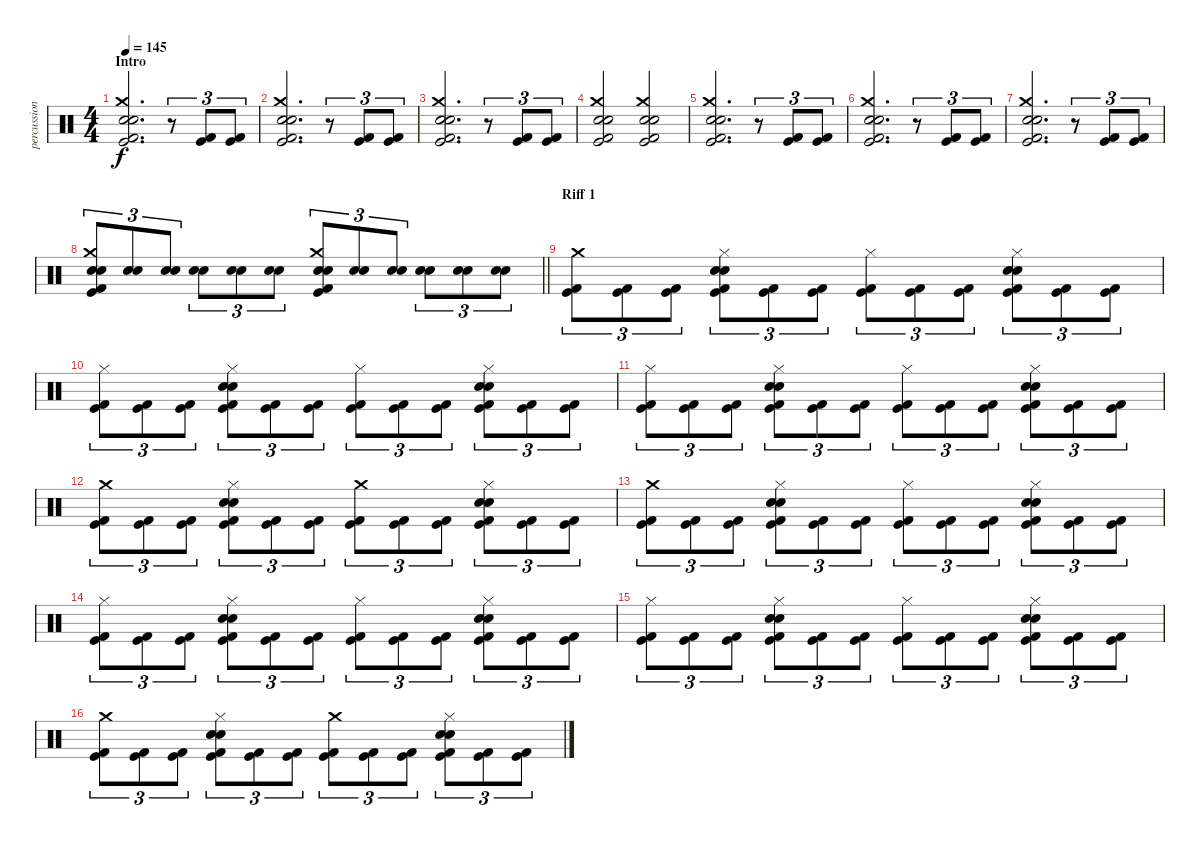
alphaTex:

\track ("percussion" "percussion") {instrument percussion}
\staff {score}
\articulation defaults
\ts (4 4)
\section ("" "Intro")
\tempo 145
\clef neutral
\ks c
("Electric Snare (hit)" "Snare (hit) 2" "Crash medium (hit)" "Kick (hit) 2" "Kick (hit)").2{d dy f} r.8{tu (3 2)} ("Kick (hit) 2" "Kick (hit)").8{tu (3 2)} ("Kick (hit) 2" "Kick (hit)").8{tu (3 2)} |
("Electric Snare (hit)" "Snare (hit) 2" "Crash medium (hit)" "Kick (hit) 2" "Kick (hit)").2{d} r.8{tu (3 2)} ("Kick (hit) 2" "Kick (hit)").8{tu (3 2)} ("Kick (hit) 2" "Kick (hit)").8{tu (3 2)} |
("Electric Snare (hit)" "Snare (hit) 2" "Crash medium (hit)" "Kick (hit) 2" "Kick (hit)").2{d} r.8{tu (3 2)} ("Kick (hit) 2" "Kick (hit)").8{tu (3 2)} ("Kick (hit) 2" "Kick (hit)").8{tu (3 2)} |
("Electric Snare (hit)" "Snare (hit) 2" "Crash medium (hit)" "Kick (hit) 2" "Kick (hit)").2 ("Electric Snare (hit)" "Snare (hit) 2" "Crash medium (hit)" "Kick (hit) 2" "Kick (hit)").2 |
("Electric Snare (hit)" "Snare (hit) 2" "Crash medium (hit)" "Kick (hit) 2" "Kick (hit)").2{d} r.8{tu (3 2)} ("Kick (hit) 2" "Kick (hit)").8{tu (3 2)} ("Kick (hit) 2" "Kick (hit)").8{tu (3 2)} |
("Electric Snare (hit)" "Snare (hit) 2" "Crash medium (hit)" "Kick (hit) 2" "Kick (hit)").2{d} r.8{tu (3 2)} ("Kick (hit) 2" "Kick (hit)").8{tu (3 2)} ("Kick (hit) 2" "Kick (hit)").8{tu (3 2)} |
("Electric Snare (hit)" "Snare (hit) 2" "Crash medium (hit)" "Kick (hit) 2" "Kick (hit)").2{d} r.8{tu (3 2)} ("Kick (hit) 2" "Kick (hit)").8{tu (3 2)} ("Kick (hit) 2" "Kick (hit)").8{tu (3 2)} |
\barLineRight lightlight
("Crash medium (hit)" "Electric Snare (hit)" "Snare (hit) 2" "Kick (hit)" "Kick (hit) 2").8{tu (3 2)} ("Electric Snare (hit)" "Snare (hit) 2").8{tu (3 2)} ("Electric Snare (hit)" "Snare (hit) 2").8{tu (3 2)} ("Electric Snare (hit)" "Snare (hit) 2").8{tu (3 2)} ("Electric Snare (hit)" "Snare (hit) 2").8{tu (3 2)} ("Electric Snare (hit)" "Snare (hit) 2").8{tu (3 2)} ("Crash medium (hit)" "Electric Snare (hit)" "Snare (hit) 2" "Kick (hit) 2" "Kick (hit)").8{tu (3 2)} ("Electric Snare (hit)" "Snare (hit) 2").8{tu (3 2)} ("Electric Snare (hit)" "Snare (hit) 2").8{tu (3 2)} ("Electric Snare (hit)" "Snare (hit) 2").8{tu (3 2)} ("Electric Snare (hit)" "Snare (hit) 2").8{tu (3 2)} ("Electric Snare (hit)" "Snare (hit) 2").8{tu (3 2)} |
\section ("" "Riff 1")
("Crash medium (hit)" "Kick (hit)" "Kick (hit) 2").8{tu (3 2)} ("Kick (hit)" "Kick (hit) 2").8{tu (3 2)} ("Kick (hit)" "Kick (hit) 2").8{tu (3 2)} ("Hi-Hat (closed)" "Electric Snare (hit)" "Snare (hit) 2" "Kick (hit)" "Kick (hit) 2").8{tu (3 2)} ("Kick (hit)" "Kick (hit) 2").8{tu (3 2)} ("Kick (hit)" "Kick (hit) 2").8{tu (3 2)} ("Hi-Hat (closed)" "Kick (hit)" "Kick (hit) 2").8{tu (3 2)} ("Kick (hit)" "Kick (hit) 2").8{tu (3 2)} ("Kick (hit)" "Kick (hit) 2").8{tu (3 2)} ("Hi-Hat (closed)" "Electric Snare (hit)" "Snare (hit) 2" "Kick (hit)" "Kick (hit) 2").8{tu (3 2)} ("Kick (hit)" "Kick (hit) 2").8{tu (3 2)} ("Kick (hit)" "Kick (hit) 2").8{tu (3 2)} |
("Hi-Hat (closed)" "Kick (hit)" "Kick (hit) 2").8{tu (3 2)} ("Kick (hit)" "Kick (hit) 2").8{tu (3 2)} ("Kick (hit)" "Kick (hit) 2").8{tu (3 2)} ("Hi-Hat (closed)" "Electric Snare (hit)" "Snare (hit) 2" "Kick (hit)" "Kick (hit) 2").8{tu (3 2)} ("Kick (hit)" "Kick (hit) 2").8{tu (3 2)} ("Kick (hit)" "Kick (hit) 2").8{tu (3 2)} ("Hi-Hat (closed)" "Kick (hit)" "Kick (hit) 2").8{tu (3 2)} ("Kick (hit)" "Kick (hit) 2").8{tu (3 2)} ("Kick (hit)" "Kick (hit) 2").8{tu (3 2)} ("Hi-Hat (closed)" "Electric Snare (hit)" "Snare (hit) 2" "Kick (hit)" "Kick (hit) 2").8{tu (3 2)} ("Kick (hit)" "Kick (hit) 2").8{tu (3 2)} ("Kick (hit)" "Kick (hit) 2").8{tu (3 2)} |
("Hi-Hat (closed)" "Kick (hit)" "Kick (hit) 2").8{tu (3 2)} ("Kick (hit)" "Kick (hit) 2").8{tu (3 2)} ("Kick (hit)" "Kick (hit) 2").8{tu (3 2)} ("Hi-Hat (closed)" "Electric Snare (hit)" "Snare (hit) 2" "Kick (hit)" "Kick (hit) 2").8{tu (3 2)} ("Kick (hit)" "Kick (hit) 2").8{tu (3 2)} ("Kick (hit)" "Kick (hit) 2").8{tu (3 2)} ("Hi-Hat (closed)" "Kick (hit)" "Kick (hit) 2").8{tu (3 2)} ("Kick (hit)" "Kick (hit) 2").8{tu (3 2)} ("Kick (hit)" "Kick (hit) 2").8{tu (3 2)} ("Hi-Hat (closed)" "Electric Snare (hit)" "Snare (hit) 2" "Kick (hit)" "Kick (hit) 2").8{tu (3 2)} ("Kick (hit)" "Kick (hit) 2").8{tu (3 2)} ("Kick (hit)" "Kick (hit) 2").8{tu (3 2)} |
("Crash medium (hit)" "Kick (hit)" "Kick (hit) 2").8{tu (3 2)} ("Kick (hit)" "Kick (hit) 2").8{tu (3 2)} ("Kick (hit)" "Kick (hit) 2").8{tu (3 2)} ("Hi-Hat (closed)" "Electric Snare (hit)" "Snare (hit) 2" "Kick (hit)" "Kick (hit) 2").8{tu (3 2)} ("Kick (hit)" "Kick (hit) 2").8{tu (3 2)} ("Kick (hit)" "Kick (hit) 2").8{tu (3 2)} ("Crash medium (hit)" "Kick (hit)" "Kick (hit) 2").8{tu (3 2)} ("Kick (hit)" "Kick (hit) 2").8{tu (3 2)} ("Kick (hit)" "Kick (hit) 2").8{tu (3 2)} ("Hi-Hat (closed)" "Electric Snare (hit)" "Snare (hit) 2" "Kick (hit)" "Kick (hit) 2").8{tu (3 2)} ("Kick (hit)" "Kick (hit) 2").8{tu (3 2)} ("Kick (hit)" "Kick (hit) 2").8{tu (3 2)} |
("Crash medium (hit)" "Kick (hit)" "Kick (hit) 2").8{tu (3 2)} ("Kick (hit)" "Kick (hit) 2").8{tu (3 2)} ("Kick (hit)" "Kick (hit) 2").8{tu (3 2)} ("Hi-Hat (closed)" "Electric Snare (hit)" "Snare (hit) 2" "Kick (hit)" "Kick (hit) 2").8{tu (3 2)} ("Kick (hit)" "Kick (hit) 2").8{tu (3 2)} ("Kick (hit)" "Kick (hit) 2").8{tu (3 2)} ("Hi-Hat (closed)" "Kick (hit)" "Kick (hit) 2").8{tu (3 2)} ("Kick (hit)" "Kick (hit) 2").8{tu (3 2)} ("Kick (hit)" "Kick (hit) 2").8{tu (3 2)} ("Hi-Hat (closed)" "Electric Snare (hit)" "Snare (hit) 2" "Kick (hit)" "Kick (hit) 2").8{tu (3 2)} ("Kick (hit)" "Kick (hit) 2").8{tu (3 2)} ("Kick (hit)" "Kick (hit) 2").8{tu (3 2)} |
("Hi-Hat (closed)" "Kick (hit)" "Kick (hit) 2").8{tu (3 2)} ("Kick (hit)" "Kick (hit) 2").8{tu (3 2)} ("Kick (hit)" "Kick (hit) 2").8{tu (3 2)} ("Hi-Hat (closed)" "Electric Snare (hit)" "Snare (hit) 2" "Kick (hit)" "Kick (hit) 2").8{tu (3 2)} ("Kick (hit)" "Kick (hit) 2").8{tu (3 2)} ("Kick (hit)" "Kick (hit) 2").8{tu (3 2)} ("Hi-Hat (closed)" "Kick (hit)" "Kick (hit) 2").8{tu (3 2)} ("Kick (hit)" "Kick (hit) 2").8{tu (3 2)} ("Kick (hit)" "Kick (hit) 2").8{tu (3 2)} ("Hi-Hat (closed)" "Electric Snare (hit)" "Snare (hit) 2" "Kick (hit)" "Kick (hit) 2").8{tu (3 2)} ("Kick (hit)" "Kick (hit) 2").8{tu (3 2)} ("Kick (hit)" "Kick (hit) 2").8{tu (3 2)} |
("Hi-Hat (closed)" "Kick (hit)" "Kick (hit) 2").8{tu (3 2)} ("Kick (hit)" "Kick (hit) 2").8{tu (3 2)} ("Kick (hit)" "Kick (hit) 2").8{tu (3 2)} ("Hi-Hat (closed)" "Electric Snare (hit)" "Snare (hit) 2" "Kick (hit)" "Kick (hit) 2").8{tu (3 2)} ("Kick (hit)" "Kick (hit) 2").8{tu (3 2)} ("Kick (hit)" "Kick (hit) 2").8{tu (3 2)} ("Hi-Hat (closed)" "Kick (hit)" "Kick (hit) 2").8{tu (3 2)} ("Kick (hit)" "Kick (hit) 2").8{tu (3 2)} ("Kick (hit)" "Kick (hit) 2").8{tu (3 2)} ("Hi-Hat (closed)" "Electric Snare (hit)" "Snare (hit) 2" "Kick (hit)" "Kick (hit) 2").8{tu (3 2)} ("Kick (hit)" "Kick (hit) 2").8{tu (3 2)} ("Kick (hit)" "Kick (hit) 2").8{tu (3 2)} |
("Crash medium (hit)" "Kick (hit)" "Kick (hit) 2").8{tu (3 2)} ("Kick (hit)" "Kick (hit) 2").8{tu (3 2)} ("Kick (hit)" "Kick (hit) 2").8{tu (3 2)} ("Hi-Hat (closed)" "Electric Snare (hit)" "Snare (hit) 2" "Kick (hit)" "Kick (hit) 2").8{tu (3 2)} ("Kick (hit)" "Kick (hit) 2").8{tu (3 2)} ("Kick (hit)" "Kick (hit) 2").8{tu (3 2)} ("Crash medium (hit)" "Kick (hit)" "Kick (hit) 2").8{tu (3 2)} ("Kick (hit)" "Kick (hit) 2").8{tu (3 2)} ("Kick (hit)" "Kick (hit) 2").8{tu (3 2)} ("Hi-Hat (closed)" "Electric Snare (hit)" "Snare (hit) 2" "Kick (hit)" "Kick (hit) 2").8{tu (3 2)} ("Kick (hit)" "Kick (hit) 2").8{tu (3 2)} ("Kick (hit)" "Kick (hit) 2").8{tu (3 2)}
